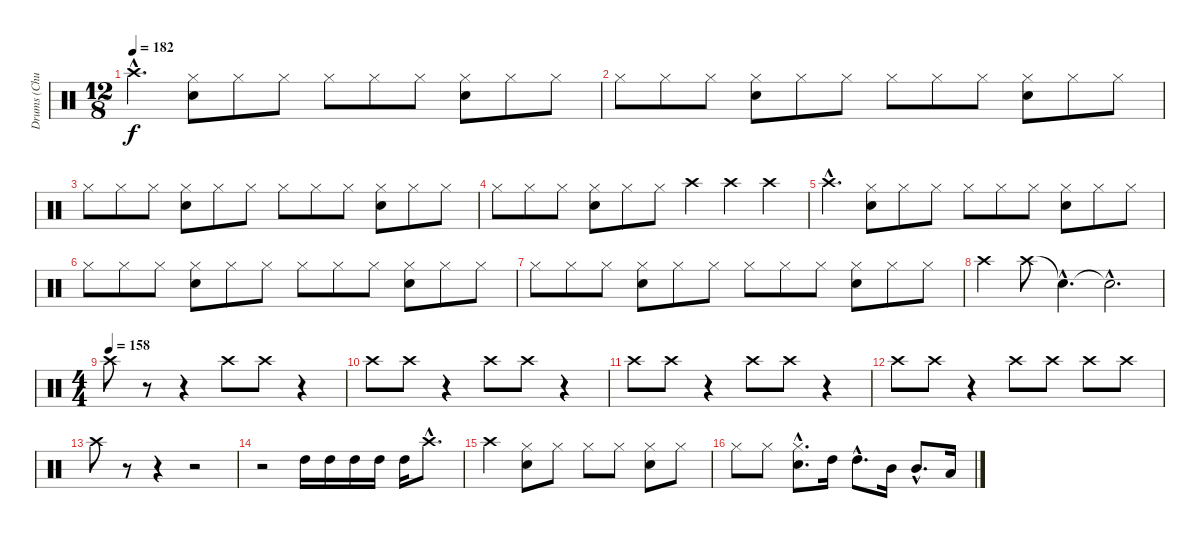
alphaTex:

\track ("Drums (Chuck Behler)" "Drums (Chu") {instrument percussion}
\staff {score}
\articulation defaults
\ts (12 8)
\tempo 182
\clef neutral
\ks c "Crash high (hit)"{hac}.4{d dy f}
("Hi-Hat (closed)" "Snare (hit) 2").8 "Hi-Hat (closed)".8 "Hi-Hat (closed)".8 "Hi-Hat (closed)".8 "Hi-Hat (closed)".8 "Hi-Hat (closed)".8 ("Hi-Hat (closed)" "Snare (hit) 2").8 "Hi-Hat (closed)".8 "Hi-Hat (closed)".8 |
"Hi-Hat (closed)".8 "Hi-Hat (closed)".8 "Hi-Hat (closed)".8 ("Hi-Hat (closed)" "Snare (hit) 2").8 "Hi-Hat (closed)".8 "Hi-Hat (closed)".8 "Hi-Hat (closed)".8 "Hi-Hat (closed)".8 "Hi-Hat (closed)".8 ("Hi-Hat (closed)" "Snare (hit) 2").8 "Hi-Hat (closed)".8 "Hi-Hat (closed)".8 |
"Hi-Hat (closed)".8 "Hi-Hat (closed)".8 "Hi-Hat (closed)".8 ("Hi-Hat (closed)" "Snare (hit) 2").8 "Hi-Hat (closed)".8 "Hi-Hat (closed)".8 "Hi-Hat (closed)".8 "Hi-Hat (closed)".8 "Hi-Hat (closed)".8 ("Hi-Hat (closed)" "Snare (hit) 2").8 "Hi-Hat (closed)".8 "Hi-Hat (closed)".8 |
"Hi-Hat (closed)".8 "Hi-Hat (closed)".8 "Hi-Hat (closed)".8 ("Hi-Hat (closed)" "Snare (hit) 2").8 "Hi-Hat (closed)".8 "Hi-Hat (closed)".8 "Crash high (hit)".4 "Crash high (hit)".4 "Crash high (hit)".4 |
"Crash high (hit)"{hac}.4{d} ("Hi-Hat (closed)" "Snare (hit) 2").8 "Hi-Hat (closed)".8 "Hi-Hat (closed)".8 "Hi-Hat (closed)".8 "Hi-Hat (closed)".8 "Hi-Hat (closed)".8 ("Hi-Hat (closed)" "Snare (hit) 2").8 "Hi-Hat (closed)".8 "Hi-Hat (closed)".8 |
"Hi-Hat (closed)".8 "Hi-Hat (closed)".8 "Hi-Hat (closed)".8 ("Hi-Hat (closed)" "Snare (hit) 2").8 "Hi-Hat (closed)".8 "Hi-Hat (closed)".8 "Hi-Hat (closed)".8 "Hi-Hat (closed)".8 "Hi-Hat (closed)".8 ("Hi-Hat (closed)" "Snare (hit) 2").8 "Hi-Hat (closed)".8 "Hi-Hat (closed)".8 |
"Hi-Hat (closed)".8 "Hi-Hat (closed)".8 "Hi-Hat (closed)".8 ("Hi-Hat (closed)" "Snare (hit) 2").8 "Hi-Hat (closed)".8 "Hi-Hat (closed)".8 "Hi-Hat (closed)".8 "Hi-Hat (closed)".8 "Hi-Hat (closed)".8 ("Hi-Hat (closed)" "Snare (hit) 2").8 "Hi-Hat (closed)".8 "Hi-Hat (closed)".8 |
"Crash high (hit)".4 "Crash high (hit)".8 "Snare (hit)"{hac t}.4{d} "Snare (hit)"{hac t}.2{d} |
\ts (4 4)
\tempo (158)
"Crash high (hit)".8 r.8 r.4 "Crash high (hit)".8 "Crash high (hit)".8 r.4 |
"Crash high (hit)".8 "Crash high (hit)".8 r.4 "Crash high (hit)".8 "Crash high (hit)".8 r.4 |
"Crash high (hit)".8 "Crash high (hit)".8 r.4 "Crash high (hit)".8 "Crash high (hit)".8 r.4 |
"Crash high (hit)".8 "Crash high (hit)".8 r.4 "Crash high (hit)".8 "Crash high (hit)".8 "Crash high (hit)".8 "Crash high (hit)".8 |
"Crash high (hit)".8 r.8 r.4 r.2 |
r.2 "High Tom (hit)".16 "High Tom (hit)".16 "High Tom (hit)".16 "High Tom (hit)".16 "High Tom (hit)".16 "Crash high (hit)"{hac}.8{d} |
"Crash high (hit)".4 ("Hi-Hat (closed)" "Snare (hit) 2").8 "Hi-Hat (closed)".8 "Hi-Hat (closed)".8 "Hi-Hat (closed)".8 ("Hi-Hat (closed)" "Snare (hit) 2").8 "Hi-Hat (closed)".8 |
"Hi-Hat (closed)".8 "Hi-Hat (closed)".8 ("Hi-Hat (closed)"{hac} "Snare (hit) 2"{hac}).8{d} "High Tom (hit)".16 "High Tom (hit)"{hac}.8{d} "Mid Tom (hit)".16 "Mid Tom (hit)"{hac}.8{d} "Low Tom (hit)".16
